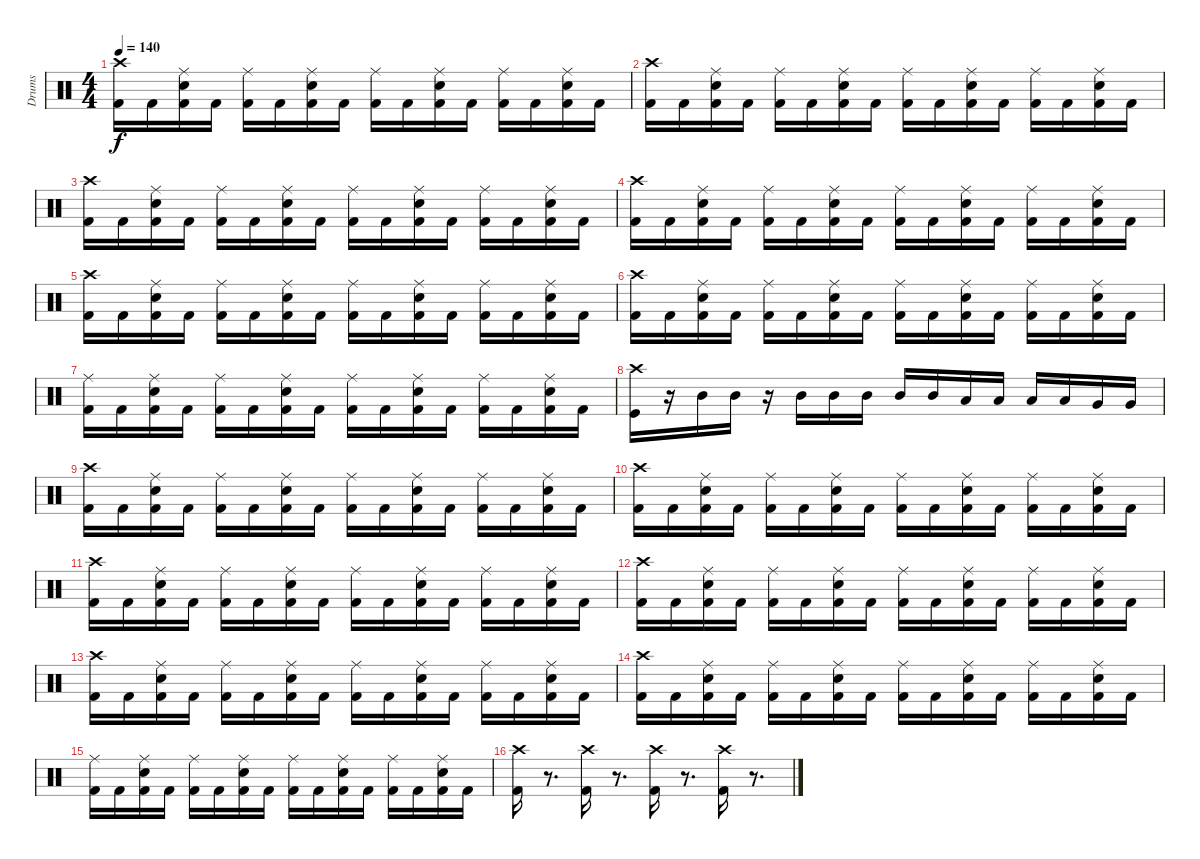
\track ("Drums" "Drums") {instrument percussion}
\staff {score}
\articulation defaults
\ts (4 4)
\tempo 140
\clef neutral
\ks c
("Kick (hit) 2" "Crash high (hit)").16{dy f} "Kick (hit) 2".16 ("Kick (hit) 2" "Snare (hit) 2" "Ride (middle)").16 "Kick (hit) 2".16 ("Kick (hit) 2" "Ride (middle)").16 "Kick (hit) 2".16 ("Kick (hit) 2" "Snare (hit) 2" "Ride (middle)").16 "Kick (hit) 2".16 ("Kick (hit) 2" "Ride (middle)").16 "Kick (hit) 2".16 ("Kick (hit) 2" "Snare (hit) 2" "Ride (middle)").16 "Kick (hit) 2".16 ("Kick (hit) 2" "Ride (middle)").16 "Kick (hit) 2".16 ("Kick (hit) 2" "Snare (hit) 2" "Ride (middle)").16 "Kick (hit) 2".16 |
("Kick (hit) 2" "Crash high (hit)").16 "Kick (hit) 2".16 ("Kick (hit) 2" "Snare (hit) 2" "Ride (middle)").16 "Kick (hit) 2".16 ("Kick (hit) 2" "Ride (middle)").16 "Kick (hit) 2".16 ("Kick (hit) 2" "Snare (hit) 2" "Ride (middle)").16 "Kick (hit) 2".16 ("Kick (hit) 2" "Ride (middle)").16 "Kick (hit) 2".16 ("Kick (hit) 2" "Snare (hit) 2" "Ride (middle)").16 "Kick (hit) 2".16 ("Kick (hit) 2" "Ride (middle)").16 "Kick (hit) 2".16 ("Kick (hit) 2" "Snare (hit) 2" "Ride (middle)").16 "Kick (hit) 2".16 |
("Kick (hit) 2" "Crash high (hit)").16 "Kick (hit) 2".16 ("Kick (hit) 2" "Snare (hit) 2" "Ride (middle)").16 "Kick (hit) 2".16 ("Kick (hit) 2" "Ride (middle)").16 "Kick (hit) 2".16 ("Kick (hit) 2" "Snare (hit) 2" "Ride (middle)").16 "Kick (hit) 2".16 ("Kick (hit) 2" "Ride (middle)").16 "Kick (hit) 2".16 ("Kick (hit) 2" "Snare (hit) 2" "Ride (middle)").16 "Kick (hit) 2".16 ("Kick (hit) 2" "Ride (middle)").16 "Kick (hit) 2".16 ("Kick (hit) 2" "Snare (hit) 2" "Ride (middle)").16 "Kick (hit) 2".16 |
("Kick (hit) 2" "Crash high (hit)").16 "Kick (hit) 2".16 ("Kick (hit) 2" "Snare (hit) 2" "Ride (middle)").16 "Kick (hit) 2".16 ("Kick (hit) 2" "Ride (middle)").16 "Kick (hit) 2".16 ("Kick (hit) 2" "Snare (hit) 2" "Ride (middle)").16 "Kick (hit) 2".16 ("Kick (hit) 2" "Ride (middle)").16 "Kick (hit) 2".16 ("Kick (hit) 2" "Snare (hit) 2" "Ride (middle)").16 "Kick (hit) 2".16 ("Kick (hit) 2" "Ride (middle)").16 "Kick (hit) 2".16 ("Kick (hit) 2" "Snare (hit) 2" "Ride (middle)").16 "Kick (hit) 2".16 |
("Kick (hit) 2" "Crash high (hit)").16 "Kick (hit) 2".16 ("Kick (hit) 2" "Snare (hit) 2" "Ride (middle)").16 "Kick (hit) 2".16 ("Kick (hit) 2" "Ride (middle)").16 "Kick (hit) 2".16 ("Kick (hit) 2" "Snare (hit) 2" "Ride (middle)").16 "Kick (hit) 2".16 ("Kick (hit) 2" "Ride (middle)").16 "Kick (hit) 2".16 ("Kick (hit) 2" "Snare (hit) 2" "Ride (middle)").16 "Kick (hit) 2".16 ("Kick (hit) 2" "Ride (middle)").16 "Kick (hit) 2".16 ("Kick (hit) 2" "Snare (hit) 2" "Ride (middle)").16 "Kick (hit) 2".16 |
("Kick (hit) 2" "Crash high (hit)").16 "Kick (hit) 2".16 ("Kick (hit) 2" "Snare (hit) 2" "Ride (middle)").16 "Kick (hit) 2".16 ("Kick (hit) 2" "Ride (middle)").16 "Kick (hit) 2".16 ("Kick (hit) 2" "Snare (hit) 2" "Ride (middle)").16 "Kick (hit) 2".16 ("Kick (hit) 2" "Ride (middle)").16 "Kick (hit) 2".16 ("Kick (hit) 2" "Snare (hit) 2" "Ride (middle)").16 "Kick (hit) 2".16 ("Kick (hit) 2" "Ride (middle)").16 "Kick (hit) 2".16 ("Kick (hit) 2" "Snare (hit) 2" "Ride (middle)").16 "Kick (hit) 2".16 |
("Kick (hit) 2" "Ride (middle)").16 "Kick (hit) 2".16 ("Kick (hit) 2" "Snare (hit) 2" "Ride (middle)").16 "Kick (hit) 2".16 ("Kick (hit) 2" "Ride (middle)").16 "Kick (hit) 2".16 ("Kick (hit) 2" "Snare (hit) 2" "Ride (middle)").16 "Kick (hit) 2".16 ("Kick (hit) 2" "Ride (middle)").16 "Kick (hit) 2".16 ("Kick (hit) 2" "Snare (hit) 2" "Ride (middle)").16 "Kick (hit) 2".16 ("Kick (hit) 2" "Ride (middle)").16 "Kick (hit) 2".16 ("Kick (hit) 2" "Snare (hit) 2" "Ride (middle)").16 "Kick (hit) 2".16 |
("Kick (hit)" "Crash high (hit)").16 r.16 "Mid Tom (hit)".16 "Mid Tom (hit)".16 r.16 "Mid Tom (hit)".16 "Mid Tom (hit)".16 "Mid Tom (hit)".16 "Mid Tom (hit)".16 "Mid Tom (hit)".16 "Low Tom (hit)".16 "Low Tom (hit)".16 "Low Tom (hit)".16 "Low Tom (hit)".16 "Very Low Tom (hit)".16 "Very Low Tom (hit)".16 |
("Kick (hit) 2" "Crash high (hit)").16 "Kick (hit) 2".16 ("Kick (hit) 2" "Snare (hit) 2" "Ride (middle)").16 "Kick (hit) 2".16 ("Kick (hit) 2" "Ride (middle)").16 "Kick (hit) 2".16 ("Kick (hit) 2" "Snare (hit) 2" "Ride (middle)").16 "Kick (hit) 2".16 ("Kick (hit) 2" "Ride (middle)").16 "Kick (hit) 2".16 ("Kick (hit) 2" "Snare (hit) 2" "Ride (middle)").16 "Kick (hit) 2".16 ("Kick (hit) 2" "Ride (middle)").16 "Kick (hit) 2".16 ("Kick (hit) 2" "Snare (hit) 2" "Ride (middle)").16 "Kick (hit) 2".16 |
("Kick (hit) 2" "Crash high (hit)").16 "Kick (hit) 2".16 ("Kick (hit) 2" "Snare (hit) 2" "Ride (middle)").16 "Kick (hit) 2".16 ("Kick (hit) 2" "Ride (middle)").16 "Kick (hit) 2".16 ("Kick (hit) 2" "Snare (hit) 2" "Ride (middle)").16 "Kick (hit) 2".16 ("Kick (hit) 2" "Ride (middle)").16 "Kick (hit) 2".16 ("Kick (hit) 2" "Snare (hit) 2" "Ride (middle)").16 "Kick (hit) 2".16 ("Kick (hit) 2" "Ride (middle)").16 "Kick (hit) 2".16 ("Kick (hit) 2" "Snare (hit) 2" "Ride (middle)").16 "Kick (hit) 2".16 |
("Kick (hit) 2" "Crash high (hit)").16 "Kick (hit) 2".16 ("Kick (hit) 2" "Snare (hit) 2" "Ride (middle)").16 "Kick (hit) 2".16 ("Kick (hit) 2" "Ride (middle)").16 "Kick (hit) 2".16 ("Kick (hit) 2" "Snare (hit) 2" "Ride (middle)").16 "Kick (hit) 2".16 ("Kick (hit) 2" "Ride (middle)").16 "Kick (hit) 2".16 ("Kick (hit) 2" "Snare (hit) 2" "Ride (middle)").16 "Kick (hit) 2".16 ("Kick (hit) 2" "Ride (middle)").16 "Kick (hit) 2".16 ("Kick (hit) 2" "Snare (hit) 2" "Ride (middle)").16 "Kick (hit) 2".16 |
("Kick (hit) 2" "Crash high (hit)").16 "Kick (hit) 2".16 ("Kick (hit) 2" "Snare (hit) 2" "Ride (middle)").16 "Kick (hit) 2".16 ("Kick (hit) 2" "Ride (middle)").16 "Kick (hit) 2".16 ("Kick (hit) 2" "Snare (hit) 2" "Ride (middle)").16 "Kick (hit) 2".16 ("Kick (hit) 2" "Ride (middle)").16 "Kick (hit) 2".16 ("Kick (hit) 2" "Snare (hit) 2" "Ride (middle)").16 "Kick (hit) 2".16 ("Kick (hit) 2" "Ride (middle)").16 "Kick (hit) 2".16 ("Kick (hit) 2" "Snare (hit) 2" "Ride (middle)").16 "Kick (hit) 2".16 |
("Kick (hit) 2" "Crash high (hit)").16 "Kick (hit) 2".16 ("Kick (hit) 2" "Snare (hit) 2" "Ride (middle)").16 "Kick (hit) 2".16 ("Kick (hit) 2" "Ride (middle)").16 "Kick (hit) 2".16 ("Kick (hit) 2" "Snare (hit) 2" "Ride (middle)").16 "Kick (hit) 2".16 ("Kick (hit) 2" "Ride (middle)").16 "Kick (hit) 2".16 ("Kick (hit) 2" "Snare (hit) 2" "Ride (middle)").16 "Kick (hit) 2".16 ("Kick (hit) 2" "Ride (middle)").16 "Kick (hit) 2".16 ("Kick (hit) 2" "Snare (hit) 2" "Ride (middle)").16 "Kick (hit) 2".16 |
("Kick (hit) 2" "Crash high (hit)").16 "Kick (hit) 2".16 ("Kick (hit) 2" "Snare (hit) 2" "Ride (middle)").16 "Kick (hit) 2".16 ("Kick (hit) 2" "Ride (middle)").16 "Kick (hit) 2".16 ("Kick (hit) 2" "Snare (hit) 2" "Ride (middle)").16 "Kick (hit) 2".16 ("Kick (hit) 2" "Ride (middle)").16 "Kick (hit) 2".16 ("Kick (hit) 2" "Snare (hit) 2" "Ride (middle)").16 "Kick (hit) 2".16 ("Kick (hit) 2" "Ride (middle)").16 "Kick (hit) 2".16 ("Kick (hit) 2" "Snare (hit) 2" "Ride (middle)").16 "Kick (hit) 2".16 |
("Kick (hit) 2" "Ride (middle)").16 "Kick (hit) 2".16 ("Kick (hit) 2" "Snare (hit) 2" "Ride (middle)").16 "Kick (hit) 2".16 ("Kick (hit) 2" "Ride (middle)").16 "Kick (hit) 2".16 ("Kick (hit) 2" "Snare (hit) 2" "Ride (middle)").16 "Kick (hit) 2".16 ("Kick (hit) 2" "Ride (middle)").16 "Kick (hit) 2".16 ("Kick (hit) 2" "Snare (hit) 2" "Ride (middle)").16 "Kick (hit) 2".16 ("Kick (hit) 2" "Ride (middle)").16 "Kick (hit) 2".16 ("Kick (hit) 2" "Snare (hit) 2" "Ride (middle)").16 "Kick (hit) 2".16 |
("Kick (hit) 2" "Crash high (hit)").16 r.8{d} ("Kick (hit) 2" "Crash high (hit)").16 r.8{d} ("Kick (hit) 2" "Crash high (hit)").16 r.8{d} ("Kick (hit) 2" "Crash high (hit)").16 r.8{d}
